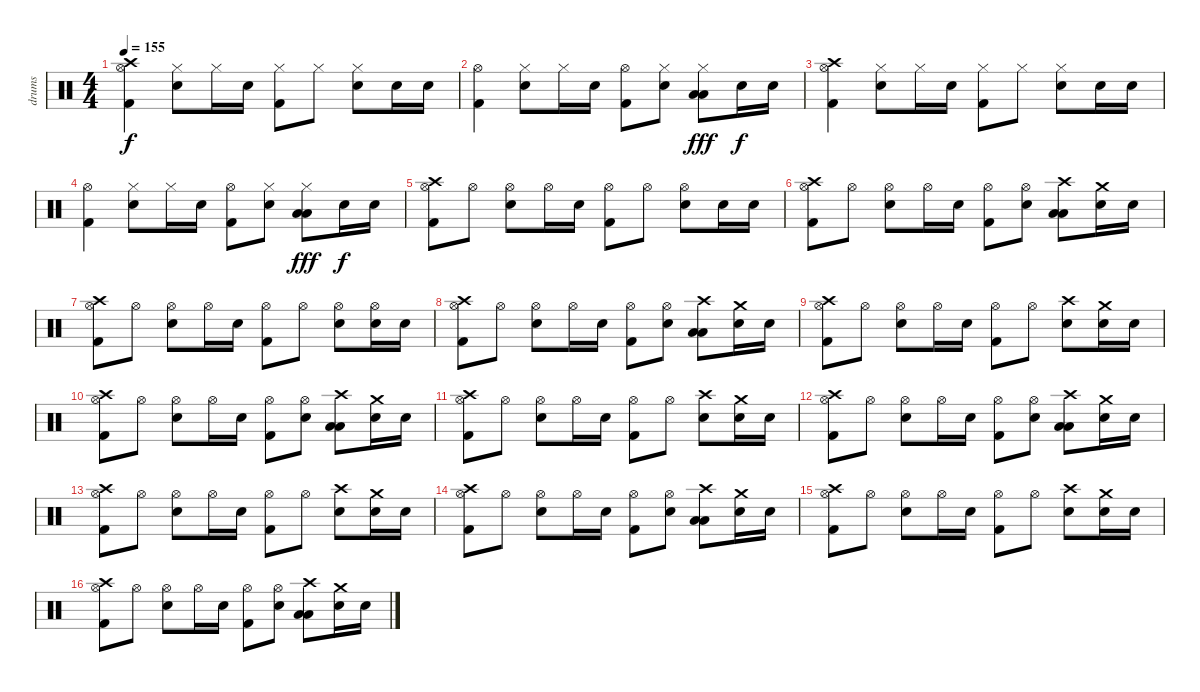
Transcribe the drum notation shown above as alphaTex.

\track ("drums" "drums") {instrument percussion}
\staff {score}
\articulation defaults
\ts (4 4)
\tempo 155
\clef neutral
\ks c
("Crash high (hit)" "Kick (hit) 2" "Hi-Hat (open)").4{dy f} ("Electric Snare (hit)" "Hi-Hat (closed)").8 "Hi-Hat (closed)".16 "Electric Snare (hit)".16 ("Kick (hit) 2" "Hi-Hat (closed)").8 "Hi-Hat (closed)".8 ("Electric Snare (hit)" "Hi-Hat (closed)").8 "Electric Snare (hit)".16 "Electric Snare (hit)".16 |
("Hi-Hat (open)" "Kick (hit) 2").4 ("Electric Snare (hit)" "Hi-Hat (closed)").8 "Hi-Hat (closed)".16 "Electric Snare (hit)".16 ("Kick (hit) 2" "Hi-Hat (open)").8 ("Electric Snare (hit)" "Hi-Hat (closed)").8 ("Low Floor Tom (hit)" "Low Tom (hit)" "Hi-Hat (closed)").8{dy fff} "Electric Snare (hit)".16{dy f} "Electric Snare (hit)".16 |
("Crash high (hit)" "Kick (hit) 2" "Hi-Hat (open)").4 ("Electric Snare (hit)" "Hi-Hat (closed)").8 "Hi-Hat (closed)".16 "Electric Snare (hit)".16 ("Kick (hit) 2" "Hi-Hat (closed)").8 "Hi-Hat (closed)".8 ("Electric Snare (hit)" "Hi-Hat (closed)").8 "Electric Snare (hit)".16 "Electric Snare (hit)".16 |
("Hi-Hat (open)" "Kick (hit) 2").4 ("Electric Snare (hit)" "Hi-Hat (closed)").8 "Hi-Hat (closed)".16 "Electric Snare (hit)".16 ("Kick (hit) 2" "Hi-Hat (open)").8 ("Electric Snare (hit)" "Hi-Hat (closed)").8 ("Low Floor Tom (hit)" "Low Tom (hit)" "Hi-Hat (closed)").8{dy fff} "Electric Snare (hit)".16{dy f} "Electric Snare (hit)".16 |
("Crash high (hit)" "Kick (hit) 2" "Hi-Hat (open)").8 "Hi-Hat (open)".8 ("Electric Snare (hit)" "Hi-Hat (open)").8 "Hi-Hat (open)".16 "Electric Snare (hit)".16 ("Kick (hit) 2" "Hi-Hat (open)").8 "Hi-Hat (open)".8 ("Electric Snare (hit)" "Hi-Hat (open)").8 "Electric Snare (hit)".16 "Electric Snare (hit)".16 |
("Crash high (hit)" "Kick (hit) 2" "Hi-Hat (open)").8 "Hi-Hat (open)".8 ("Electric Snare (hit)" "Hi-Hat (open)").8 "Hi-Hat (open)".16 "Electric Snare (hit)".16 ("Kick (hit) 2" "Hi-Hat (open)").8 ("Electric Snare (hit)" "Hi-Hat (open)").8 ("Low Floor Tom (hit)" "Low Tom (hit)" "Crash high (hit)").8 ("Electric Snare (hit)" "Crash medium (hit)").16 "Electric Snare (hit)".16 |
("Crash high (hit)" "Kick (hit) 2" "Hi-Hat (open)").8 "Hi-Hat (open)".8 ("Electric Snare (hit)" "Hi-Hat (open)").8 "Hi-Hat (open)".16 "Electric Snare (hit)".16 ("Kick (hit) 2" "Hi-Hat (open)").8 "Hi-Hat (open)".8 ("Electric Snare (hit)" "Hi-Hat (open)").8 ("Electric Snare (hit)" "Hi-Hat (open)").16 "Electric Snare (hit)".16 |
("Crash high (hit)" "Kick (hit) 2" "Hi-Hat (open)").8 "Hi-Hat (open)".8 ("Electric Snare (hit)" "Hi-Hat (open)").8 "Hi-Hat (open)".16 "Electric Snare (hit)".16 ("Kick (hit) 2" "Hi-Hat (open)").8 ("Electric Snare (hit)" "Hi-Hat (open)").8 ("Low Floor Tom (hit)" "Low Tom (hit)" "Crash high (hit)").8 ("Electric Snare (hit)" "Crash medium (hit)").16 "Electric Snare (hit)".16 |
("Crash high (hit)" "Kick (hit) 2" "Hi-Hat (open)").8 "Hi-Hat (open)".8 ("Electric Snare (hit)" "Hi-Hat (open)").8 "Hi-Hat (open)".16 "Electric Snare (hit)".16 ("Kick (hit) 2" "Hi-Hat (open)").8 "Hi-Hat (open)".8 ("Electric Snare (hit)" "Crash high (hit)").8 ("Electric Snare (hit)" "Crash medium (hit)").16 "Electric Snare (hit)".16 |
("Crash high (hit)" "Kick (hit) 2" "Hi-Hat (open)").8 "Hi-Hat (open)".8 ("Electric Snare (hit)" "Hi-Hat (open)").8 "Hi-Hat (open)".16 "Electric Snare (hit)".16 ("Kick (hit) 2" "Hi-Hat (open)").8 ("Electric Snare (hit)" "Hi-Hat (open)").8 ("Low Floor Tom (hit)" "Low Tom (hit)" "Crash high (hit)").8 ("Electric Snare (hit)" "Crash medium (hit)").16 "Electric Snare (hit)".16 |
("Crash high (hit)" "Kick (hit) 2" "Hi-Hat (open)").8 "Hi-Hat (open)".8 ("Electric Snare (hit)" "Hi-Hat (open)").8 "Hi-Hat (open)".16 "Electric Snare (hit)".16 ("Kick (hit) 2" "Hi-Hat (open)").8 "Hi-Hat (open)".8 ("Electric Snare (hit)" "Crash high (hit)").8 ("Electric Snare (hit)" "Crash medium (hit)").16 "Electric Snare (hit)".16 |
("Crash high (hit)" "Kick (hit) 2" "Hi-Hat (open)").8 "Hi-Hat (open)".8 ("Electric Snare (hit)" "Hi-Hat (open)").8 "Hi-Hat (open)".16 "Electric Snare (hit)".16 ("Kick (hit) 2" "Hi-Hat (open)").8 ("Electric Snare (hit)" "Hi-Hat (open)").8 ("Low Floor Tom (hit)" "Low Tom (hit)" "Crash high (hit)").8 ("Electric Snare (hit)" "Crash medium (hit)").16 "Electric Snare (hit)".16 |
("Crash high (hit)" "Kick (hit) 2" "Hi-Hat (open)").8 "Hi-Hat (open)".8 ("Electric Snare (hit)" "Hi-Hat (open)").8 "Hi-Hat (open)".16 "Electric Snare (hit)".16 ("Kick (hit) 2" "Hi-Hat (open)").8 "Hi-Hat (open)".8 ("Electric Snare (hit)" "Crash high (hit)").8 ("Electric Snare (hit)" "Crash medium (hit)").16 "Electric Snare (hit)".16 |
("Crash high (hit)" "Kick (hit) 2" "Hi-Hat (open)").8 "Hi-Hat (open)".8 ("Electric Snare (hit)" "Hi-Hat (open)").8 "Hi-Hat (open)".16 "Electric Snare (hit)".16 ("Kick (hit) 2" "Hi-Hat (open)").8 ("Electric Snare (hit)" "Hi-Hat (open)").8 ("Low Floor Tom (hit)" "Low Tom (hit)" "Crash high (hit)").8 ("Electric Snare (hit)" "Crash medium (hit)").16 "Electric Snare (hit)".16 |
("Crash high (hit)" "Kick (hit) 2" "Hi-Hat (open)").8 "Hi-Hat (open)".8 ("Electric Snare (hit)" "Hi-Hat (open)").8 "Hi-Hat (open)".16 "Electric Snare (hit)".16 ("Kick (hit) 2" "Hi-Hat (open)").8 "Hi-Hat (open)".8 ("Electric Snare (hit)" "Crash high (hit)").8 ("Electric Snare (hit)" "Crash medium (hit)").16 "Electric Snare (hit)".16 |
("Crash high (hit)" "Kick (hit) 2" "Hi-Hat (open)").8 "Hi-Hat (open)".8 ("Electric Snare (hit)" "Hi-Hat (open)").8 "Hi-Hat (open)".16 "Electric Snare (hit)".16 ("Kick (hit) 2" "Hi-Hat (open)").8 ("Electric Snare (hit)" "Hi-Hat (open)").8 ("Low Floor Tom (hit)" "Low Tom (hit)" "Crash high (hit)").8 ("Electric Snare (hit)" "Crash medium (hit)").16 "Electric Snare (hit)".16
